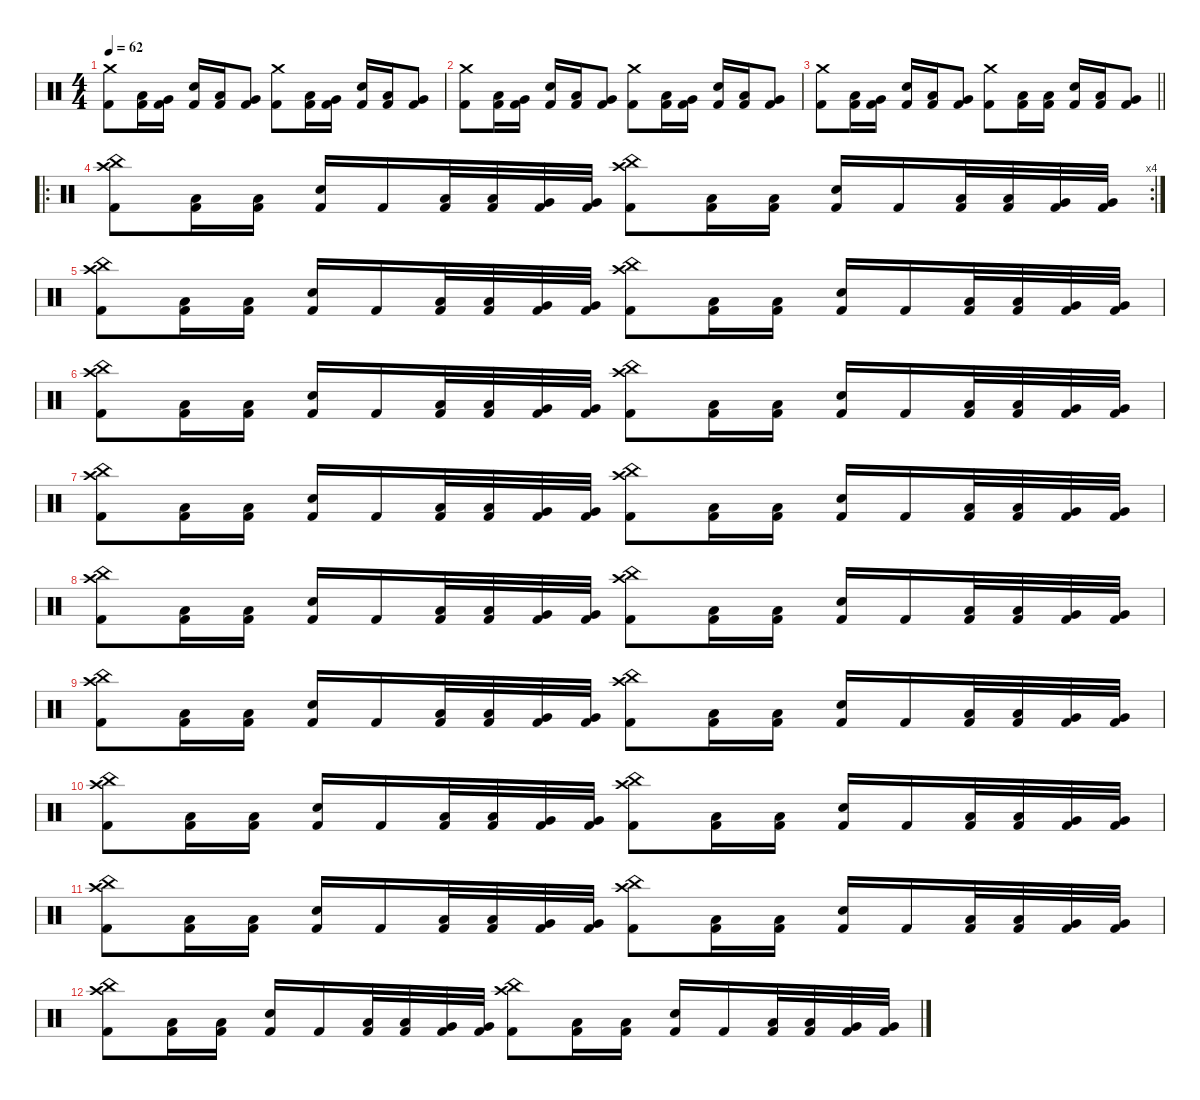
\defaultSystemsLayout 4
\hideDynamics
\bracketExtendMode nobrackets
\singleTrackTrackNamePolicy hidden
\multiTrackTrackNamePolicy hidden
\firstSystemTrackNameMode fullname
\otherSystemsTrackNameOrientation horizontal
\track ("Drums" "drm.") {defaultSystemsLayout 4 instrument percussion}
\staff {score}
\articulation defaults
\ts (4 4)
\tempo 62
\clef neutral
\ks c
("Crash medium (hit)" "Kick (hit) 2").8{dy f beam Down} ("Low Tom (hit)" "Kick (hit) 2").16{beam Down} ("Very Low Tom (hit)" "Kick (hit) 2").16{beam Down} ("Snare (hit) 2" "Kick (hit) 2").16{beam Up} ("Low Tom (hit)" "Kick (hit) 2").16{beam Up} ("Very Low Tom (hit)" "Kick (hit) 2").8{beam Up} ("Crash medium (hit)" "Kick (hit) 2").8{beam Down} ("Low Tom (hit)" "Kick (hit) 2").16{beam Down} ("Very Low Tom (hit)" "Kick (hit) 2").16{beam Down} ("Snare (hit) 2" "Kick (hit) 2").16{beam Up} ("Low Tom (hit)" "Kick (hit) 2").16{beam Up} ("Very Low Tom (hit)" "Kick (hit) 2").8{beam Up} |
("Crash medium (hit)" "Kick (hit) 2").8{beam Down} ("Low Tom (hit)" "Kick (hit) 2").16{beam Down} ("Very Low Tom (hit)" "Kick (hit) 2").16{beam Down} ("Snare (hit) 2" "Kick (hit) 2").16{beam Up} ("Low Tom (hit)" "Kick (hit) 2").16{beam Up} ("Very Low Tom (hit)" "Kick (hit) 2").8{beam Up} ("Crash medium (hit)" "Kick (hit) 2").8{beam Down} ("Low Tom (hit)" "Kick (hit) 2").16{beam Down} ("Very Low Tom (hit)" "Kick (hit) 2").16{beam Down} ("Snare (hit) 2" "Kick (hit) 2").16{beam Up} ("Low Tom (hit)" "Kick (hit) 2").16{beam Up} ("Very Low Tom (hit)" "Kick (hit) 2").8{beam Up} |
\barLineRight lightlight
("Crash medium (hit)" "Kick (hit) 2").8{beam Down} ("Low Tom (hit)" "Kick (hit) 2").16{beam Down} ("Very Low Tom (hit)" "Kick (hit) 2").16{beam Down} ("Snare (hit) 2" "Kick (hit) 2").16{beam Up} ("Low Tom (hit)" "Kick (hit) 2").16{beam Up} ("Very Low Tom (hit)" "Kick (hit) 2").8{beam Up} ("Crash medium (hit)" "Kick (hit) 2").8{beam Down} ("Low Tom (hit)" "Kick (hit) 2").16{beam Down} ("Low Tom (hit)" "Kick (hit) 2").16{beam Down} ("Snare (hit) 2" "Kick (hit) 2").16{beam Up} ("Low Tom (hit)" "Kick (hit) 2").16{beam Up} ("Very Low Tom (hit)" "Kick (hit) 2").8{beam Up} |
\ro
\rc 4
("Crash high (hit)" "China (hit)" "Kick (hit) 2").8{beam Down} ("Low Tom (hit)" "Kick (hit) 2").16{beam Down} ("Low Tom (hit)" "Kick (hit) 2").16{beam Down} ("Snare (hit) 2" "Kick (hit) 2").16{beam Up} "Kick (hit) 2".16{beam Up} ("Low Tom (hit)" "Kick (hit) 2").32{beam Up} ("Low Tom (hit)" "Kick (hit) 2").32{beam Up} ("Very Low Tom (hit)" "Kick (hit) 2").32{beam Up} ("Very Low Tom (hit)" "Kick (hit) 2").32{beam Up} ("Crash high (hit)" "China (hit)" "Kick (hit) 2").8{beam Down} ("Low Tom (hit)" "Kick (hit) 2").16{beam Down} ("Low Tom (hit)" "Kick (hit) 2").16{beam Down} ("Snare (hit) 2" "Kick (hit) 2").16{beam Up} "Kick (hit) 2".16{beam Up} ("Low Tom (hit)" "Kick (hit) 2").32{beam Up} ("Low Tom (hit)" "Kick (hit) 2").32{beam Up} ("Very Low Tom (hit)" "Kick (hit) 2").32{beam Up} ("Very Low Tom (hit)" "Kick (hit) 2").32{beam Up} |
("Crash high (hit)" "China (hit)" "Kick (hit) 2").8{beam Down} ("Low Tom (hit)" "Kick (hit) 2").16{beam Down} ("Low Tom (hit)" "Kick (hit) 2").16{beam Down} ("Snare (hit) 2" "Kick (hit) 2").16{beam Up} "Kick (hit) 2".16{beam Up} ("Low Tom (hit)" "Kick (hit) 2").32{beam Up} ("Low Tom (hit)" "Kick (hit) 2").32{beam Up} ("Very Low Tom (hit)" "Kick (hit) 2").32{beam Up} ("Very Low Tom (hit)" "Kick (hit) 2").32{beam Up} ("Crash high (hit)" "China (hit)" "Kick (hit) 2").8{beam Down} ("Low Tom (hit)" "Kick (hit) 2").16{beam Down} ("Low Tom (hit)" "Kick (hit) 2").16{beam Down} ("Snare (hit) 2" "Kick (hit) 2").16{beam Up} "Kick (hit) 2".16{beam Up} ("Low Tom (hit)" "Kick (hit) 2").32{beam Up} ("Low Tom (hit)" "Kick (hit) 2").32{beam Up} ("Very Low Tom (hit)" "Kick (hit) 2").32{beam Up} ("Very Low Tom (hit)" "Kick (hit) 2").32{beam Up} |
("Crash high (hit)" "China (hit)" "Kick (hit) 2").8{beam Down} ("Low Tom (hit)" "Kick (hit) 2").16{beam Down} ("Low Tom (hit)" "Kick (hit) 2").16{beam Down} ("Snare (hit) 2" "Kick (hit) 2").16{beam Up} "Kick (hit) 2".16{beam Up} ("Low Tom (hit)" "Kick (hit) 2").32{beam Up} ("Low Tom (hit)" "Kick (hit) 2").32{beam Up} ("Very Low Tom (hit)" "Kick (hit) 2").32{beam Up} ("Very Low Tom (hit)" "Kick (hit) 2").32{beam Up} ("Crash high (hit)" "China (hit)" "Kick (hit) 2").8{beam Down} ("Low Tom (hit)" "Kick (hit) 2").16{beam Down} ("Low Tom (hit)" "Kick (hit) 2").16{beam Down} ("Snare (hit) 2" "Kick (hit) 2").16{beam Up} "Kick (hit) 2".16{beam Up} ("Low Tom (hit)" "Kick (hit) 2").32{beam Up} ("Low Tom (hit)" "Kick (hit) 2").32{beam Up} ("Very Low Tom (hit)" "Kick (hit) 2").32{beam Up} ("Very Low Tom (hit)" "Kick (hit) 2").32{beam Up} |
("Crash high (hit)" "China (hit)" "Kick (hit) 2").8{beam Down} ("Low Tom (hit)" "Kick (hit) 2").16{beam Down} ("Low Tom (hit)" "Kick (hit) 2").16{beam Down} ("Snare (hit) 2" "Kick (hit) 2").16{beam Up} "Kick (hit) 2".16{beam Up} ("Low Tom (hit)" "Kick (hit) 2").32{beam Up} ("Low Tom (hit)" "Kick (hit) 2").32{beam Up} ("Very Low Tom (hit)" "Kick (hit) 2").32{beam Up} ("Very Low Tom (hit)" "Kick (hit) 2").32{beam Up} ("Crash high (hit)" "China (hit)" "Kick (hit) 2").8{beam Down} ("Low Tom (hit)" "Kick (hit) 2").16{beam Down} ("Low Tom (hit)" "Kick (hit) 2").16{beam Down} ("Snare (hit) 2" "Kick (hit) 2").16{beam Up} "Kick (hit) 2".16{beam Up} ("Low Tom (hit)" "Kick (hit) 2").32{beam Up} ("Low Tom (hit)" "Kick (hit) 2").32{beam Up} ("Very Low Tom (hit)" "Kick (hit) 2").32{beam Up} ("Very Low Tom (hit)" "Kick (hit) 2").32{beam Up} |
("Crash high (hit)" "China (hit)" "Kick (hit) 2").8{beam Down} ("Low Tom (hit)" "Kick (hit) 2").16{beam Down} ("Low Tom (hit)" "Kick (hit) 2").16{beam Down} ("Snare (hit) 2" "Kick (hit) 2").16{beam Up} "Kick (hit) 2".16{beam Up} ("Low Tom (hit)" "Kick (hit) 2").32{beam Up} ("Low Tom (hit)" "Kick (hit) 2").32{beam Up} ("Very Low Tom (hit)" "Kick (hit) 2").32{beam Up} ("Very Low Tom (hit)" "Kick (hit) 2").32{beam Up} ("Crash high (hit)" "China (hit)" "Kick (hit) 2").8{beam Down} ("Low Tom (hit)" "Kick (hit) 2").16{beam Down} ("Low Tom (hit)" "Kick (hit) 2").16{beam Down} ("Snare (hit) 2" "Kick (hit) 2").16{beam Up} "Kick (hit) 2".16{beam Up} ("Low Tom (hit)" "Kick (hit) 2").32{beam Up} ("Low Tom (hit)" "Kick (hit) 2").32{beam Up} ("Very Low Tom (hit)" "Kick (hit) 2").32{beam Up} ("Very Low Tom (hit)" "Kick (hit) 2").32{beam Up} |
("Crash high (hit)" "China (hit)" "Kick (hit) 2").8{beam Down} ("Low Tom (hit)" "Kick (hit) 2").16{beam Down} ("Low Tom (hit)" "Kick (hit) 2").16{beam Down} ("Snare (hit) 2" "Kick (hit) 2").16{beam Up} "Kick (hit) 2".16{beam Up} ("Low Tom (hit)" "Kick (hit) 2").32{beam Up} ("Low Tom (hit)" "Kick (hit) 2").32{beam Up} ("Very Low Tom (hit)" "Kick (hit) 2").32{beam Up} ("Very Low Tom (hit)" "Kick (hit) 2").32{beam Up} ("Crash high (hit)" "China (hit)" "Kick (hit) 2").8{beam Down} ("Low Tom (hit)" "Kick (hit) 2").16{beam Down} ("Low Tom (hit)" "Kick (hit) 2").16{beam Down} ("Snare (hit) 2" "Kick (hit) 2").16{beam Up} "Kick (hit) 2".16{beam Up} ("Low Tom (hit)" "Kick (hit) 2").32{beam Up} ("Low Tom (hit)" "Kick (hit) 2").32{beam Up} ("Very Low Tom (hit)" "Kick (hit) 2").32{beam Up} ("Very Low Tom (hit)" "Kick (hit) 2").32{beam Up} |
("Crash high (hit)" "China (hit)" "Kick (hit) 2").8{beam Down} ("Low Tom (hit)" "Kick (hit) 2").16{beam Down} ("Low Tom (hit)" "Kick (hit) 2").16{beam Down} ("Snare (hit) 2" "Kick (hit) 2").16{beam Up} "Kick (hit) 2".16{beam Up} ("Low Tom (hit)" "Kick (hit) 2").32{beam Up} ("Low Tom (hit)" "Kick (hit) 2").32{beam Up} ("Very Low Tom (hit)" "Kick (hit) 2").32{beam Up} ("Very Low Tom (hit)" "Kick (hit) 2").32{beam Up} ("Crash high (hit)" "China (hit)" "Kick (hit) 2").8{beam Down} ("Low Tom (hit)" "Kick (hit) 2").16{beam Down} ("Low Tom (hit)" "Kick (hit) 2").16{beam Down} ("Snare (hit) 2" "Kick (hit) 2").16{beam Up} "Kick (hit) 2".16{beam Up} ("Low Tom (hit)" "Kick (hit) 2").32{beam Up} ("Low Tom (hit)" "Kick (hit) 2").32{beam Up} ("Very Low Tom (hit)" "Kick (hit) 2").32{beam Up} ("Very Low Tom (hit)" "Kick (hit) 2").32{beam Up} |
("Crash high (hit)" "China (hit)" "Kick (hit) 2").8{beam Down} ("Low Tom (hit)" "Kick (hit) 2").16{beam Down} ("Low Tom (hit)" "Kick (hit) 2").16{beam Down} ("Snare (hit) 2" "Kick (hit) 2").16{beam Up} "Kick (hit) 2".16{beam Up} ("Low Tom (hit)" "Kick (hit) 2").32{beam Up} ("Low Tom (hit)" "Kick (hit) 2").32{beam Up} ("Very Low Tom (hit)" "Kick (hit) 2").32{beam Up} ("Very Low Tom (hit)" "Kick (hit) 2").32{beam Up} ("Crash high (hit)" "China (hit)" "Kick (hit) 2").8{beam Down} ("Low Tom (hit)" "Kick (hit) 2").16{beam Down} ("Low Tom (hit)" "Kick (hit) 2").16{beam Down} ("Snare (hit) 2" "Kick (hit) 2").16{beam Up} "Kick (hit) 2".16{beam Up} ("Low Tom (hit)" "Kick (hit) 2").32{beam Up} ("Low Tom (hit)" "Kick (hit) 2").32{beam Up} ("Very Low Tom (hit)" "Kick (hit) 2").32{beam Up} ("Very Low Tom (hit)" "Kick (hit) 2").32{beam Up} |
("Crash high (hit)" "China (hit)" "Kick (hit) 2").8{beam Down} ("Low Tom (hit)" "Kick (hit) 2").16{beam Down} ("Low Tom (hit)" "Kick (hit) 2").16{beam Down} ("Snare (hit) 2" "Kick (hit) 2").16{beam Up} "Kick (hit) 2".16{beam Up} ("Low Tom (hit)" "Kick (hit) 2").32{beam Up} ("Low Tom (hit)" "Kick (hit) 2").32{beam Up} ("Very Low Tom (hit)" "Kick (hit) 2").32{beam Up} ("Very Low Tom (hit)" "Kick (hit) 2").32{beam Up} ("Crash high (hit)" "China (hit)" "Kick (hit) 2").8{beam Down} ("Low Tom (hit)" "Kick (hit) 2").16{beam Down} ("Low Tom (hit)" "Kick (hit) 2").16{beam Down} ("Snare (hit) 2" "Kick (hit) 2").16{beam Up} "Kick (hit) 2".16{beam Up} ("Low Tom (hit)" "Kick (hit) 2").32{beam Up} ("Low Tom (hit)" "Kick (hit) 2").32{beam Up} ("Very Low Tom (hit)" "Kick (hit) 2").32{beam Up} ("Very Low Tom (hit)" "Kick (hit) 2").32{beam Up}
